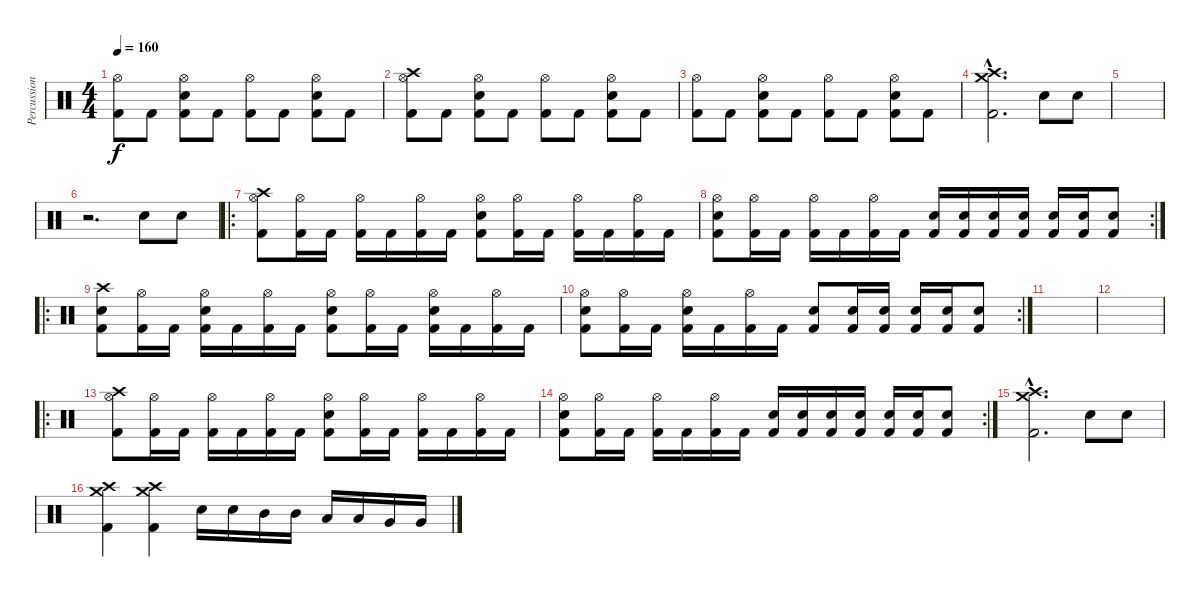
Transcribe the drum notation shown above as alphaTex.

\track ("Percussion" "Percussion") {instrument percussion}
\staff {score}
\articulation defaults
\ts (4 4)
\tempo 160
\clef neutral
\ks c
("Hi-Hat (open)" "Kick (hit) 2").8{dy f} "Kick (hit) 2".8 ("Hi-Hat (open)" "Electric Snare (hit)" "Kick (hit) 2").8 "Kick (hit) 2".8 ("Hi-Hat (open)" "Kick (hit) 2").8 "Kick (hit) 2".8 ("Hi-Hat (open)" "Electric Snare (hit)" "Kick (hit) 2").8 "Kick (hit) 2".8 |
("Crash high (hit)" "Hi-Hat (open)" "Kick (hit) 2").8 "Kick (hit) 2".8 ("Hi-Hat (open)" "Electric Snare (hit)" "Kick (hit) 2").8 "Kick (hit) 2".8 ("Hi-Hat (open)" "Kick (hit) 2").8 "Kick (hit) 2".8 ("Hi-Hat (open)" "Electric Snare (hit)" "Kick (hit) 2").8 "Kick (hit) 2".8 |
("Hi-Hat (open)" "Kick (hit) 2").8 "Kick (hit) 2".8 ("Hi-Hat (open)" "Electric Snare (hit)" "Kick (hit) 2").8 "Kick (hit) 2".8 ("Hi-Hat (open)" "Kick (hit) 2").8 "Kick (hit) 2".8 ("Hi-Hat (open)" "Electric Snare (hit)" "Kick (hit) 2").8 "Kick (hit) 2".8 |
("Crash high (hit)"{hac} "Crash medium (hit)"{hac} "Kick (hit) 2"{hac}).2{d} "Electric Snare (hit)".8 "Electric Snare (hit)".8 |
|
r.2{d} "Electric Snare (hit)".8 "Electric Snare (hit)".8 |
\ro
("Crash high (hit)" "Hi-Hat (open)" "Kick (hit) 2").8 ("Hi-Hat (open)" "Kick (hit) 2").16 "Kick (hit) 2".16 ("Hi-Hat (open)" "Kick (hit) 2").16 "Kick (hit) 2".16 ("Hi-Hat (open)" "Kick (hit) 2").16 "Kick (hit) 2".16 ("Hi-Hat (open)" "Electric Snare (hit)" "Kick (hit) 2").8 ("Hi-Hat (open)" "Kick (hit) 2").16 "Kick (hit) 2".16 ("Hi-Hat (open)" "Kick (hit) 2").16 "Kick (hit) 2".16 ("Hi-Hat (open)" "Kick (hit) 2").16 "Kick (hit) 2".16 |
\rc 2
("Hi-Hat (open)" "Electric Snare (hit)" "Kick (hit) 2").8 ("Hi-Hat (open)" "Kick (hit) 2").16 "Kick (hit) 2".16 ("Hi-Hat (open)" "Kick (hit) 2").16 "Kick (hit) 2".16 ("Hi-Hat (open)" "Kick (hit) 2").16 "Kick (hit) 2".16 ("Electric Snare (hit)" "Kick (hit) 2").16 ("Electric Snare (hit)" "Kick (hit) 2").16 ("Electric Snare (hit)" "Kick (hit) 2").16 ("Electric Snare (hit)" "Kick (hit) 2").16 ("Electric Snare (hit)" "Kick (hit) 2").16 ("Electric Snare (hit)" "Kick (hit) 2").16 ("Electric Snare (hit)" "Kick (hit) 2").8 |
\ro
("Crash high (hit)" "Electric Snare (hit)" "Kick (hit) 2").8 ("Hi-Hat (open)" "Kick (hit) 2").16 "Kick (hit) 2".16 ("Hi-Hat (open)" "Electric Snare (hit)" "Kick (hit) 2").16 "Kick (hit) 2".16 ("Hi-Hat (open)" "Kick (hit) 2").16 "Kick (hit) 2".16 ("Hi-Hat (open)" "Electric Snare (hit)" "Kick (hit) 2").8 ("Hi-Hat (open)" "Kick (hit) 2").16 "Kick (hit) 2".16 ("Hi-Hat (open)" "Electric Snare (hit)" "Kick (hit) 2").16 "Kick (hit) 2".16 ("Hi-Hat (open)" "Kick (hit) 2").16 "Kick (hit) 2".16 |
\rc 2
("Hi-Hat (open)" "Electric Snare (hit)" "Kick (hit) 2").8 ("Hi-Hat (open)" "Kick (hit) 2").16 "Kick (hit) 2".16 ("Hi-Hat (open)" "Electric Snare (hit)" "Kick (hit) 2").16 "Kick (hit) 2".16 ("Hi-Hat (open)" "Kick (hit) 2").16 "Kick (hit) 2".16 ("Electric Snare (hit)" "Kick (hit) 2").8 ("Electric Snare (hit)" "Kick (hit) 2").16 ("Electric Snare (hit)" "Kick (hit) 2").16 ("Electric Snare (hit)" "Kick (hit) 2").16 ("Electric Snare (hit)" "Kick (hit) 2").16 ("Electric Snare (hit)" "Kick (hit) 2").8 |
|
|
\ro
("Crash high (hit)" "Hi-Hat (open)" "Kick (hit) 2").8 ("Hi-Hat (open)" "Kick (hit) 2").16 "Kick (hit) 2".16 ("Hi-Hat (open)" "Kick (hit) 2").16 "Kick (hit) 2".16 ("Hi-Hat (open)" "Kick (hit) 2").16 "Kick (hit) 2".16 ("Hi-Hat (open)" "Electric Snare (hit)" "Kick (hit) 2").8 ("Hi-Hat (open)" "Kick (hit) 2").16 "Kick (hit) 2".16 ("Hi-Hat (open)" "Kick (hit) 2").16 "Kick (hit) 2".16 ("Hi-Hat (open)" "Kick (hit) 2").16 "Kick (hit) 2".16 |
\rc 2
("Hi-Hat (open)" "Electric Snare (hit)" "Kick (hit) 2").8 ("Hi-Hat (open)" "Kick (hit) 2").16 "Kick (hit) 2".16 ("Hi-Hat (open)" "Kick (hit) 2").16 "Kick (hit) 2".16 ("Hi-Hat (open)" "Kick (hit) 2").16 "Kick (hit) 2".16 ("Electric Snare (hit)" "Kick (hit) 2").16 ("Electric Snare (hit)" "Kick (hit) 2").16 ("Electric Snare (hit)" "Kick (hit) 2").16 ("Electric Snare (hit)" "Kick (hit) 2").16 ("Electric Snare (hit)" "Kick (hit) 2").16 ("Electric Snare (hit)" "Kick (hit) 2").16 ("Electric Snare (hit)" "Kick (hit) 2").8 |
("Crash high (hit)"{hac} "Crash medium (hit)"{hac} "Kick (hit) 2"{hac}).2{d} "Electric Snare (hit)".8 "Electric Snare (hit)".8 |
("Crash high (hit)" "Crash medium (hit)" "Kick (hit) 2").4 ("Crash high (hit)" "Crash medium (hit)" "Kick (hit) 2").4 "Electric Snare (hit)".16 "Electric Snare (hit)".16 "Mid Tom (hit)".16 "Mid Tom (hit)".16 "Low Tom (hit)".16 "Low Tom (hit)".16 "Very Low Tom (hit)".16 "Very Low Tom (hit)".16
